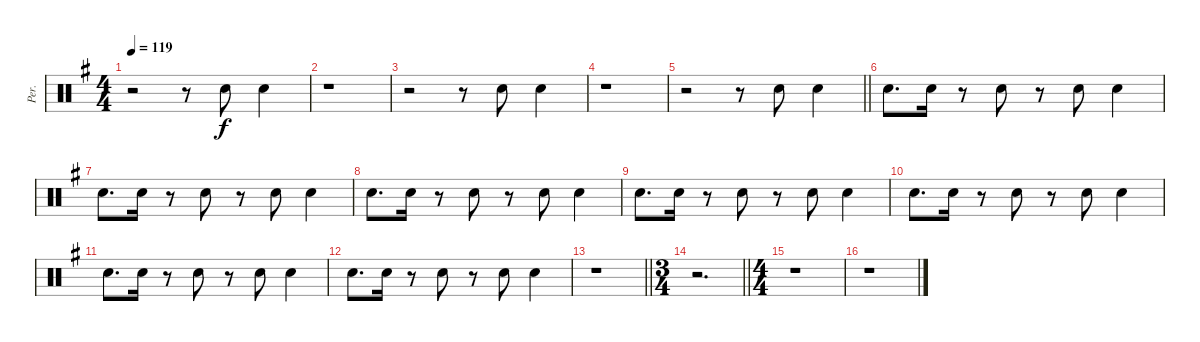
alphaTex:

\track ("Per." "Per.") {instrument percussion}
\staff {score}
\articulation defaults
\ts (4 4)
\tempo 119
\clef neutral
\ks eminor
r.2{dy f} r.8 "Hand Clap (hit)".8 "Hand Clap (hit)".4 |
r.1 |
r.2 r.8 "Hand Clap (hit)".8 "Hand Clap (hit)".4 |
r.1 |
\barLineRight lightlight
r.2 r.8 "Hand Clap (hit)".8 "Hand Clap (hit)".4 |
"Hand Clap (hit)".8{d} "Hand Clap (hit)".16 r.8 "Hand Clap (hit)".8 r.8 "Hand Clap (hit)".8 "Hand Clap (hit)".4 |
"Hand Clap (hit)".8{d} "Hand Clap (hit)".16 r.8 "Hand Clap (hit)".8 r.8 "Hand Clap (hit)".8 "Hand Clap (hit)".4 |
"Hand Clap (hit)".8{d} "Hand Clap (hit)".16 r.8 "Hand Clap (hit)".8 r.8 "Hand Clap (hit)".8 "Hand Clap (hit)".4 |
"Hand Clap (hit)".8{d} "Hand Clap (hit)".16 r.8 "Hand Clap (hit)".8 r.8 "Hand Clap (hit)".8 "Hand Clap (hit)".4 |
"Hand Clap (hit)".8{d} "Hand Clap (hit)".16 r.8 "Hand Clap (hit)".8 r.8 "Hand Clap (hit)".8 "Hand Clap (hit)".4 |
"Hand Clap (hit)".8{d} "Hand Clap (hit)".16 r.8 "Hand Clap (hit)".8 r.8 "Hand Clap (hit)".8 "Hand Clap (hit)".4 |
"Hand Clap (hit)".8{d} "Hand Clap (hit)".16 r.8 "Hand Clap (hit)".8 r.8 "Hand Clap (hit)".8 "Hand Clap (hit)".4 |
\barLineRight lightlight
r.1 |
\ts (3 4)
\barLineRight lightlight
r.2{d} |
\ts (4 4)
r.1 |
r.1
